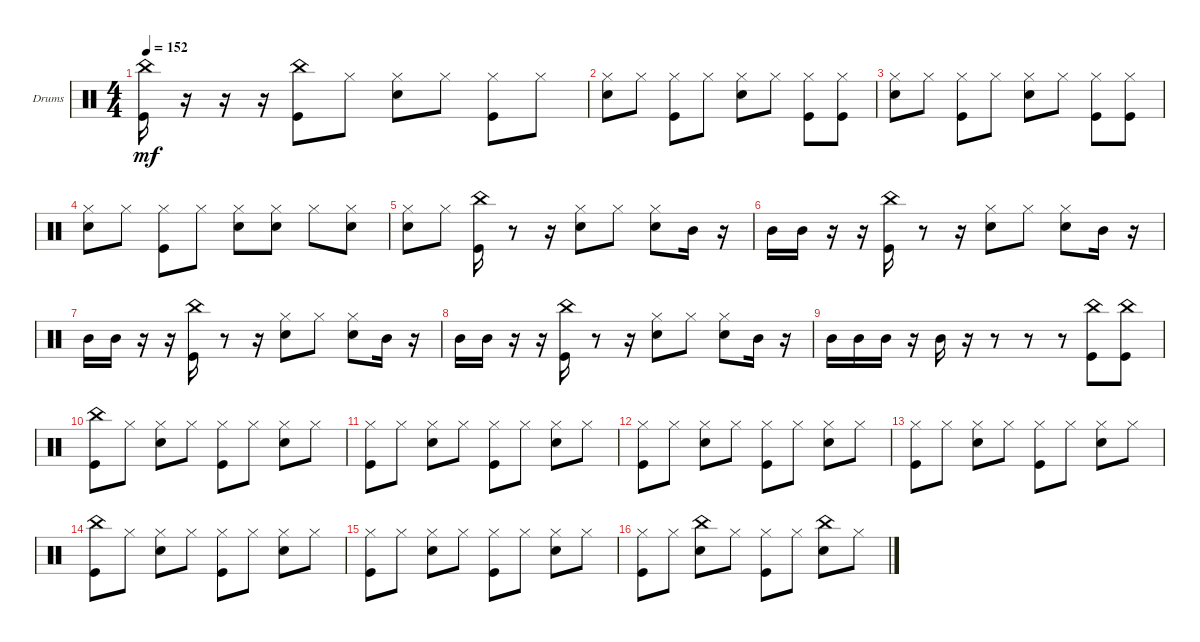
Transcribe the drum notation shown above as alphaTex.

\defaultSystemsLayout 4
\bracketExtendMode groupsimilarinstruments
\firstSystemTrackNameOrientation horizontal
\otherSystemsTrackNameOrientation horizontal
\track ("Drumkit" "Drums") {instrument percussion}
\staff {score}
\articulation defaults
\ts (4 4)
\tempo 152
\clef neutral
\ks c
("China (hit)" "Kick (hit)").16{dy mf} r.16 r.16 r.16 ("Kick (hit)" "China (hit)").8 "Hi-Hat (closed)".8 ("Hi-Hat (closed)" "Snare (hit) 2").8 "Hi-Hat (closed)".8 ("Hi-Hat (closed)" "Kick (hit)").8 "Hi-Hat (closed)".8 |
("Hi-Hat (closed)" "Snare (hit) 2").8 "Hi-Hat (closed)".8 ("Hi-Hat (closed)" "Kick (hit)").8 "Hi-Hat (closed)".8 ("Hi-Hat (closed)" "Snare (hit) 2").8 "Hi-Hat (closed)".8 ("Hi-Hat (closed)" "Kick (hit)").8 ("Hi-Hat (closed)" "Kick (hit)").8 |
("Hi-Hat (closed)" "Snare (hit) 2").8 "Hi-Hat (closed)".8 ("Hi-Hat (closed)" "Kick (hit)").8 "Hi-Hat (closed)".8 ("Hi-Hat (closed)" "Snare (hit) 2").8 "Hi-Hat (closed)".8 ("Hi-Hat (closed)" "Kick (hit)").8 ("Hi-Hat (closed)" "Kick (hit)").8 |
("Snare (hit) 2" "Hi-Hat (closed)").8 "Hi-Hat (closed)".8 ("Kick (hit)" "Hi-Hat (closed)").8 "Hi-Hat (closed)".8 ("Snare (hit) 2" "Hi-Hat (closed)").8 ("Hi-Hat (closed)" "Snare (hit) 2").8 "Hi-Hat (closed)".8 ("Snare (hit) 2" "Hi-Hat (closed)").8 |
("Snare (hit) 2" "Hi-Hat (closed)").8 "Hi-Hat (closed)".8 ("Kick (hit)" "China (hit)").16 r.8 r.16 ("Snare (hit) 2" "Hi-Hat (closed)").8 "Hi-Hat (closed)".8 ("Hi-Hat (closed)" "Snare (hit) 2").8 "Mid Tom (hit)".16 r.16 |
"Mid Tom (hit)".16 "Mid Tom (hit)".16 r.16 r.16 ("Kick (hit)" "China (hit)").16 r.8 r.16 ("Snare (hit) 2" "Hi-Hat (closed)").8 "Hi-Hat (closed)".8 ("Hi-Hat (closed)" "Snare (hit) 2").8 "Mid Tom (hit)".16 r.16 |
"Mid Tom (hit)".16 "Mid Tom (hit)".16 r.16 r.16 ("Kick (hit)" "China (hit)").16 r.8 r.16 ("Snare (hit) 2" "Hi-Hat (closed)").8 "Hi-Hat (closed)".8 ("Hi-Hat (closed)" "Snare (hit) 2").8 "Mid Tom (hit)".16 r.16 |
"Mid Tom (hit)".16 "Mid Tom (hit)".16 r.16 r.16 ("Kick (hit)" "China (hit)").16 r.8 r.16 ("Snare (hit) 2" "Hi-Hat (closed)").8 "Hi-Hat (closed)".8 ("Hi-Hat (closed)" "Snare (hit) 2").8 "Mid Tom (hit)".16 r.16 |
"Mid Tom (hit)".16 "Mid Tom (hit)".16 "Mid Tom (hit)".16 r.16 "Mid Tom (hit)".16 r.16 r.8 r.8 r.8 ("Kick (hit)" "China (hit)").8 ("Kick (hit)" "China (hit)").8 |
("China (hit)" "Kick (hit)").8 "Hi-Hat (closed)".8 ("Hi-Hat (closed)" "Snare (hit) 2").8 "Hi-Hat (closed)".8 ("Hi-Hat (closed)" "Kick (hit)").8 "Hi-Hat (closed)".8 ("Hi-Hat (closed)" "Snare (hit) 2").8 "Hi-Hat (closed)".8 |
("Kick (hit)" "Hi-Hat (closed)").8 "Hi-Hat (closed)".8 ("Snare (hit) 2" "Hi-Hat (closed)").8 "Hi-Hat (closed)".8 ("Hi-Hat (closed)" "Kick (hit)").8 "Hi-Hat (closed)".8 ("Hi-Hat (closed)" "Snare (hit) 2").8 "Hi-Hat (closed)".8 |
("Kick (hit)" "Hi-Hat (closed)").8 "Hi-Hat (closed)".8 ("Snare (hit) 2" "Hi-Hat (closed)").8 "Hi-Hat (closed)".8 ("Hi-Hat (closed)" "Kick (hit)").8 "Hi-Hat (closed)".8 ("Hi-Hat (closed)" "Snare (hit) 2").8 "Hi-Hat (closed)".8 |
("Kick (hit)" "Hi-Hat (closed)").8 "Hi-Hat (closed)".8 ("Hi-Hat (closed)" "Snare (hit) 2").8 "Hi-Hat (closed)".8 ("Hi-Hat (closed)" "Kick (hit)").8 "Hi-Hat (closed)".8 ("Hi-Hat (closed)" "Snare (hit) 2").8 "Hi-Hat (closed)".8 |
("Kick (hit)" "China (hit)").8 "Hi-Hat (closed)".8 ("Snare (hit) 2" "Hi-Hat (closed)").8 "Hi-Hat (closed)".8 ("Hi-Hat (closed)" "Kick (hit)").8 "Hi-Hat (closed)".8 ("Hi-Hat (closed)" "Snare (hit) 2").8 "Hi-Hat (closed)".8 |
("Kick (hit)" "Hi-Hat (closed)").8 "Hi-Hat (closed)".8 ("Snare (hit) 2" "Hi-Hat (closed)").8 "Hi-Hat (closed)".8 ("Hi-Hat (closed)" "Kick (hit)").8 "Hi-Hat (closed)".8 ("Hi-Hat (closed)" "Snare (hit) 2").8 "Hi-Hat (closed)".8 |
("Kick (hit)" "Hi-Hat (closed)").8 "Hi-Hat (closed)".8 ("Snare (hit) 2" "China (hit)").8 "Hi-Hat (closed)".8 ("Kick (hit)" "Hi-Hat (closed)").8 "Hi-Hat (closed)".8 ("Snare (hit) 2" "China (hit)").8 "Hi-Hat (closed)".8
